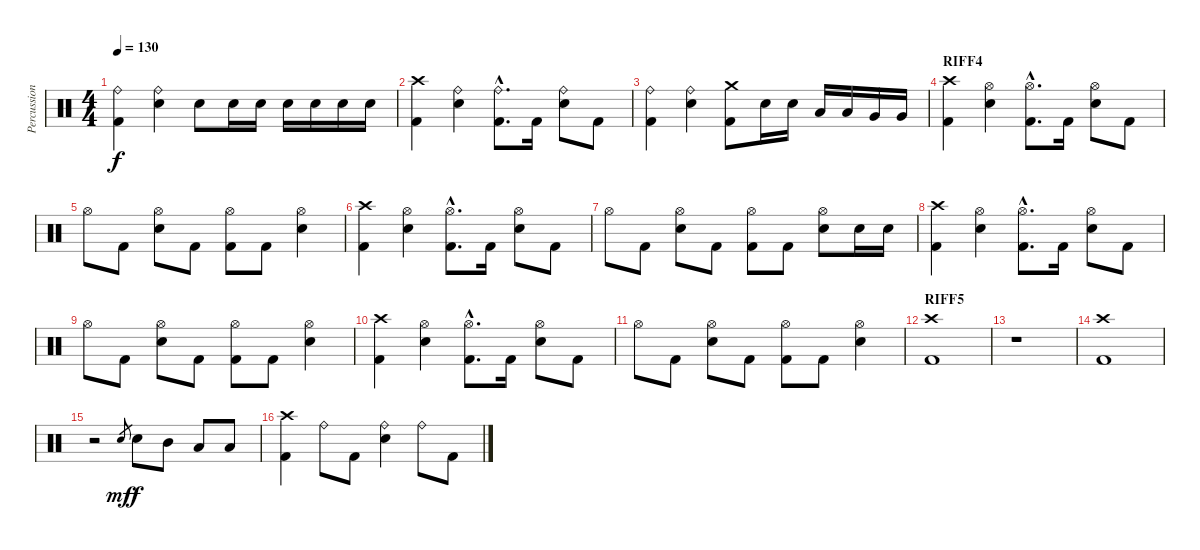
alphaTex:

\track ("Percussion" "Percussion") {instrument percussion}
\staff {score}
\articulation defaults
\ts (4 4)
\tempo 130
\clef neutral
\ks c
("Ride (bell)" "Kick (hit) 2").4{dy f} ("Ride (bell)" "Electric Snare (hit)").4 "Electric Snare (hit)".8 "Electric Snare (hit)".16 "Electric Snare (hit)".16 "Electric Snare (hit)".16 "Electric Snare (hit)".16 "Electric Snare (hit)".16 "Electric Snare (hit)".16 |
("Crash high (hit)" "Kick (hit) 2").4 ("Ride (bell)" "Electric Snare (hit)").4 ("Ride (bell)"{hac} "Kick (hit) 2"{hac}).8{d} "Kick (hit) 2".16 ("Ride (bell)" "Electric Snare (hit)").8 "Kick (hit) 2".8 |
("Ride (bell)" "Kick (hit) 2").4 ("Ride (bell)" "Electric Snare (hit)").4 ("Crash medium (hit)" "Kick (hit) 2").8 "Electric Snare (hit)".16 "Electric Snare (hit)".16 "Low Tom (hit)".16 "Low Tom (hit)".16 "Very Low Tom (hit)".16 "Very Low Tom (hit)".16 |
\section ("" "RIFF4")
("Crash high (hit)" "Kick (hit) 2").4 ("Hi-Hat (open)" "Electric Snare (hit)").4 ("Hi-Hat (open)"{hac} "Kick (hit) 2"{hac}).8{d} "Kick (hit) 2".16 ("Hi-Hat (open)" "Electric Snare (hit)").8 "Kick (hit) 2".8 |
"Hi-Hat (open)".8 "Kick (hit) 2".8 ("Hi-Hat (open)" "Electric Snare (hit)").8 "Kick (hit) 2".8 ("Hi-Hat (open)" "Kick (hit) 2").8 "Kick (hit) 2".8 ("Hi-Hat (open)" "Electric Snare (hit)").4 |
("Crash high (hit)" "Kick (hit) 2").4 ("Hi-Hat (open)" "Electric Snare (hit)").4 ("Hi-Hat (open)"{hac} "Kick (hit) 2"{hac}).8{d} "Kick (hit) 2".16 ("Hi-Hat (open)" "Electric Snare (hit)").8 "Kick (hit) 2".8 |
"Hi-Hat (open)".8 "Kick (hit) 2".8 ("Hi-Hat (open)" "Electric Snare (hit)").8 "Kick (hit) 2".8 ("Hi-Hat (open)" "Kick (hit) 2").8 "Kick (hit) 2".8 ("Hi-Hat (open)" "Electric Snare (hit)").8 "Electric Snare (hit)".16 "Electric Snare (hit)".16 |
("Crash high (hit)" "Kick (hit) 2").4 ("Hi-Hat (open)" "Electric Snare (hit)").4 ("Hi-Hat (open)"{hac} "Kick (hit) 2"{hac}).8{d} "Kick (hit) 2".16 ("Hi-Hat (open)" "Electric Snare (hit)").8 "Kick (hit) 2".8 |
"Hi-Hat (open)".8 "Kick (hit) 2".8 ("Hi-Hat (open)" "Electric Snare (hit)").8 "Kick (hit) 2".8 ("Hi-Hat (open)" "Kick (hit) 2").8 "Kick (hit) 2".8 ("Hi-Hat (open)" "Electric Snare (hit)").4 |
("Crash high (hit)" "Kick (hit) 2").4 ("Hi-Hat (open)" "Electric Snare (hit)").4 ("Hi-Hat (open)"{hac} "Kick (hit) 2"{hac}).8{d} "Kick (hit) 2".16 ("Hi-Hat (open)" "Electric Snare (hit)").8 "Kick (hit) 2".8 |
"Hi-Hat (open)".8 "Kick (hit) 2".8 ("Hi-Hat (open)" "Electric Snare (hit)").8 "Kick (hit) 2".8 ("Hi-Hat (open)" "Kick (hit) 2").8 "Kick (hit) 2".8 ("Hi-Hat (open)" "Electric Snare (hit)").4 |
\section ("" "RIFF5")
("Crash high (hit)" "Kick (hit) 2").1 |
r.1 |
("Crash high (hit)" "Kick (hit) 2").1 |
r.2 "Electric Snare (hit)".8{gr dy mf} "Electric Snare (hit)".8{dy f} "Mid Tom (hit)".8 "Low Tom (hit)".8 "Low Tom (hit)".8 |
("Crash high (hit)" "Kick (hit) 2").4 "Ride (bell)".8 "Kick (hit) 2".8 ("Ride (bell)" "Electric Snare (hit)").4 "Ride (bell)".8 "Kick (hit) 2".8
